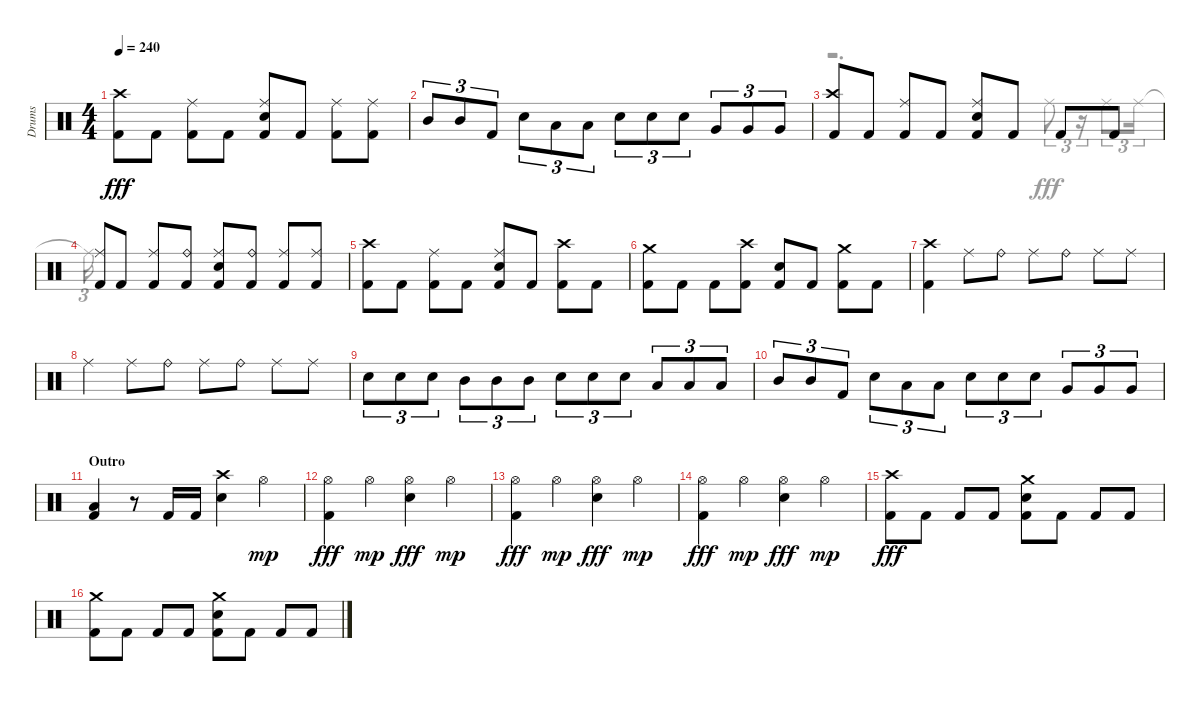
\track ("Drums" "Drums") {instrument percussion}
\staff {score}
\articulation defaults
\voice
\ts (4 4)
\tempo 240
\clef neutral
\ks aminor
("Crash high (hit)" "Kick (hit) 2").8{dy fff} "Kick (hit) 2".8 ("Ride (middle)" "Kick (hit) 2").8 "Kick (hit) 2".8 ("Kick (hit) 2" "Ride (middle)" "Snare (hit) 2").8 "Kick (hit) 2".8 ("Ride (middle)" "Kick (hit) 2").8 ("Kick (hit) 2" "Ride (middle)").8 |
"Mid Tom (hit)".8{tu (3 2)} "Mid Tom (hit)".8{tu (3 2)} "Kick (hit) 2".8{tu (3 2)} "Snare (hit) 2".8{tu (3 2)} "Low Tom (hit)".8{tu (3 2)} "Low Tom (hit)".8{tu (3 2)} "Snare (hit) 2".8{tu (3 2)} "Snare (hit) 2".8{tu (3 2)} "Snare (hit) 2".8{tu (3 2)} "Very Low Tom (hit)".8{tu (3 2)} "Very Low Tom (hit)".8{tu (3 2)} "Very Low Tom (hit)".8{tu (3 2)} |
("Crash high (hit)" "Kick (hit) 2").8 "Kick (hit) 2".8 ("Kick (hit) 2" "Ride (middle)").8 "Kick (hit) 2".8 ("Ride (middle)" "Snare (hit) 2" "Kick (hit) 2").8 "Kick (hit) 2".8 "Kick (hit) 2".8 "Kick (hit) 2".8 |
("Ride (middle)" "Kick (hit) 2").8 "Kick (hit) 2".8 ("Ride (middle)" "Kick (hit) 2").8 ("Ride (bell)" "Kick (hit) 2").8 ("Snare (hit) 2" "Kick (hit) 2" "Ride (middle)").8 ("Ride (bell)" "Kick (hit) 2").8 ("Kick (hit) 2" "Ride (middle)").8 ("Kick (hit) 2" "Ride (middle)").8 |
("Kick (hit) 2" "Crash high (hit)").8 "Kick (hit) 2".8 ("Ride (middle)" "Kick (hit) 2").8 "Kick (hit) 2".8 ("Ride (middle)" "Snare (hit) 2" "Kick (hit) 2").8 "Kick (hit) 2".8 ("Kick (hit) 2" "Crash high (hit)").8 "Kick (hit) 2".8 |
("Kick (hit) 2" "Crash medium (hit)").8 "Kick (hit) 2".8 "Kick (hit) 2".8 ("Kick (hit) 2" "Crash high (hit)").8 ("Kick (hit) 2" "Snare (hit) 2").8 "Kick (hit) 2".8 ("Kick (hit) 2" "Crash medium (hit)").8 "Kick (hit) 2".8 |
("Kick (hit) 2" "Crash high (hit)").4 "Ride (middle)".8 "Ride (bell)".8 "Ride (middle)".8 "Ride (bell)".8 "Ride (middle)".8 "Ride (middle)".8 |
"Ride (middle)".4 "Ride (middle)".8 "Ride (bell)".8 "Ride (middle)".8 "Ride (bell)".8 "Ride (middle)".8 "Ride (middle)".8 |
"Snare (hit) 2".8{tu (3 2)} "Snare (hit) 2".8{tu (3 2)} "Snare (hit) 2".8{tu (3 2)} "Mid Tom (hit)".8{tu (3 2)} "Mid Tom (hit)".8{tu (3 2)} "Mid Tom (hit)".8{tu (3 2)} "Snare (hit) 2".8{tu (3 2)} "Snare (hit) 2".8{tu (3 2)} "Snare (hit) 2".8{tu (3 2)} "Low Tom (hit)".8{tu (3 2)} "Low Tom (hit)".8{tu (3 2)} "Low Tom (hit)".8{tu (3 2)} |
"Mid Tom (hit)".8{tu (3 2)} "Mid Tom (hit)".8{tu (3 2)} "Kick (hit) 2".8{tu (3 2)} "Snare (hit) 2".8{tu (3 2)} "Low Tom (hit)".8{tu (3 2)} "Low Tom (hit)".8{tu (3 2)} "Snare (hit) 2".8{tu (3 2)} "Snare (hit) 2".8{tu (3 2)} "Snare (hit) 2".8{tu (3 2)} "Very Low Tom (hit)".8{tu (3 2)} "Very Low Tom (hit)".8{tu (3 2)} "Very Low Tom (hit)".8{tu (3 2)} |
\section ("" "Outro")
("Low Floor Tom (hit)" "Kick (hit) 2").4 r.8 "Kick (hit) 2".16 "Kick (hit) 2".16 ("Snare (hit) 2" "Crash high (hit)").4 "Hi-Hat (open)".4{dy mp} |
("Hi-Hat (open)" "Kick (hit) 2").4{dy fff} "Hi-Hat (open)".4{dy mp} ("Hi-Hat (open)" "Snare (hit) 2").4{dy fff} "Hi-Hat (open)".4{dy mp} |
("Hi-Hat (open)" "Kick (hit) 2").4{dy fff} "Hi-Hat (open)".4{dy mp} ("Hi-Hat (open)" "Snare (hit) 2").4{dy fff} "Hi-Hat (open)".4{dy mp} |
("Hi-Hat (open)" "Kick (hit) 2").4{dy fff} "Hi-Hat (open)".4{dy mp} ("Snare (hit) 2" "Hi-Hat (open)").4{dy fff} "Hi-Hat (open)".4{dy mp} |
("Crash high (hit)" "Kick (hit) 2").8{dy fff} "Kick (hit) 2".8 "Kick (hit) 2".8 "Kick (hit) 2".8 ("Crash medium (hit)" "Kick (hit) 2" "Snare (hit) 2").8 "Kick (hit) 2".8 "Kick (hit) 2".8 "Kick (hit) 2".8 |
("Kick (hit) 2" "Crash medium (hit)").8 "Kick (hit) 2".8 "Kick (hit) 2".8 "Kick (hit) 2".8 ("Crash medium (hit)" "Snare (hit) 2" "Kick (hit) 2").8 "Kick (hit) 2".8 "Kick (hit) 2".8 "Kick (hit) 2".8
\voice
\clef neutral
\ottava regular
\simile none
\ks aminor
|
|
r.2{d} "Ride (middle)".8{tu (3 2)} r.16{tu (3 2)} "Ride (middle)".8{tu (3 2)} "Ride (middle)".16{tu (3 2)} |
"Ride (middle)"{t}.16{tu (3 2)} |
|
|
|
|
|
|
|
|
|
|
|
